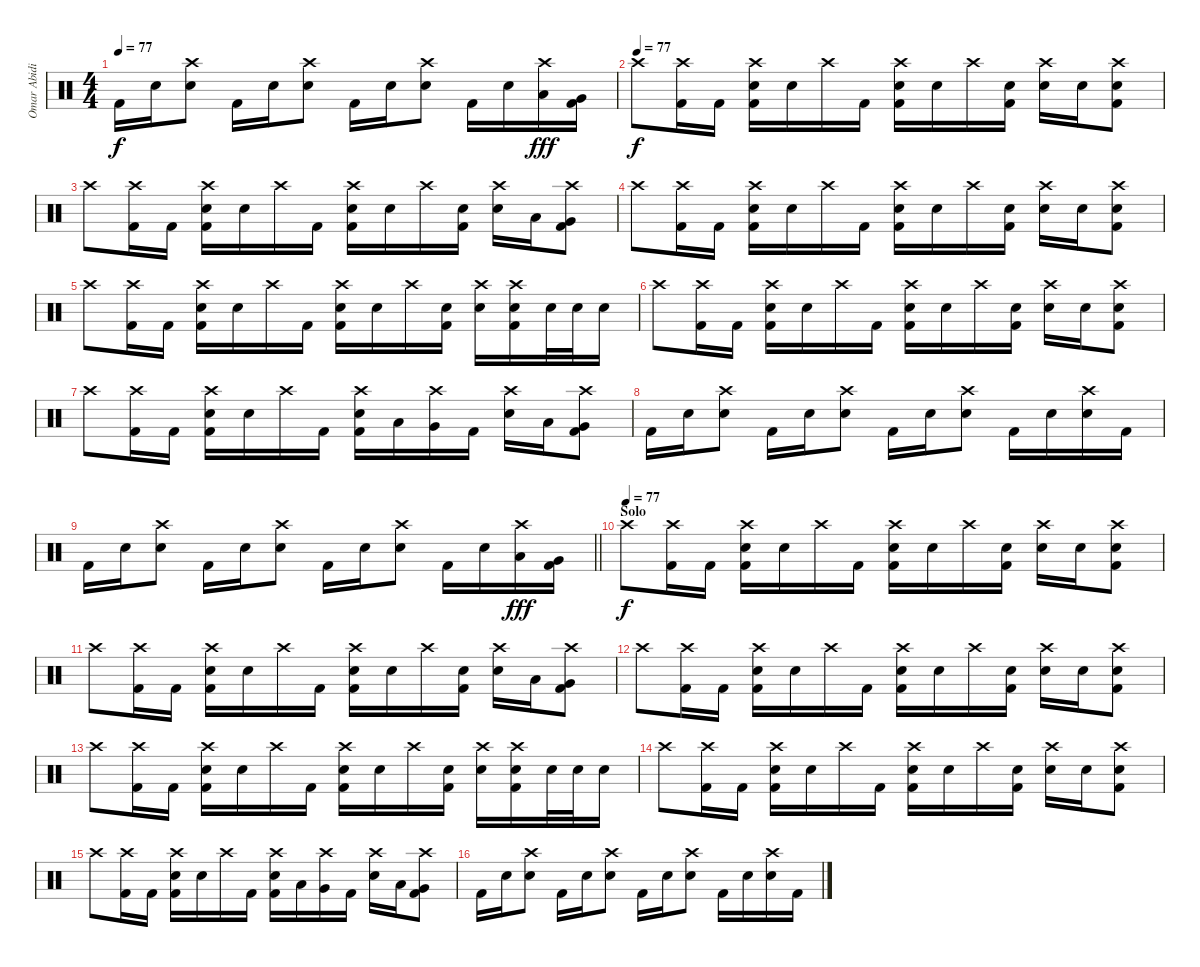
\track ("Omar Abidi" "Omar Abidi") {instrument percussion}
\staff {score}
\articulation defaults
\ts (4 4)
\tempo 77
\clef neutral
\ks c "Kick (hit) 2".16{dy f} "Electric Snare (hit)".16
("Crash high (hit)" "Electric Snare (hit)").8 "Kick (hit) 2".16 "Electric Snare (hit)".16 ("Crash high (hit)" "Electric Snare (hit)").8 "Kick (hit) 2".16 "Electric Snare (hit)".16 ("Crash high (hit)" "Electric Snare (hit)").8 "Kick (hit) 2".16 "Electric Snare (hit)".16 ("Crash high (hit)" "Low Tom (hit)").16{dy fff} ("Very Low Tom (hit)" "Kick (hit) 2").16 |
\tempo (77)
"Crash high (hit)".8{dy f volume 14} ("Crash high (hit)" "Kick (hit) 2").16 "Kick (hit) 2".16 ("Crash high (hit)" "Electric Snare (hit)" "Kick (hit) 2").16 "Electric Snare (hit)".16 "Crash high (hit)".16 "Kick (hit) 2".16 ("Crash high (hit)" "Electric Snare (hit)" "Kick (hit) 2").16 "Electric Snare (hit)".16 "Crash high (hit)".16 ("Electric Snare (hit)" "Kick (hit) 2").16 ("Crash high (hit)" "Electric Snare (hit)").16 "Electric Snare (hit)".16 ("Crash high (hit)" "Electric Snare (hit)" "Kick (hit) 2").8 |
"Crash high (hit)".8{volume 14} ("Crash high (hit)" "Kick (hit) 2").16 "Kick (hit) 2".16 ("Crash high (hit)" "Electric Snare (hit)" "Kick (hit) 2").16 "Electric Snare (hit)".16 "Crash high (hit)".16 "Kick (hit) 2".16 ("Crash high (hit)" "Electric Snare (hit)" "Kick (hit) 2").16 "Electric Snare (hit)".16 "Crash high (hit)".16 ("Electric Snare (hit)" "Kick (hit) 2").16 ("Crash high (hit)" "Electric Snare (hit)").16 "Low Tom (hit)".16 ("Crash high (hit)" "Very Low Tom (hit)" "Kick (hit) 2").8 |
"Crash high (hit)".8{volume 14} ("Crash high (hit)" "Kick (hit) 2").16 "Kick (hit) 2".16 ("Crash high (hit)" "Electric Snare (hit)" "Kick (hit) 2").16 "Electric Snare (hit)".16 "Crash high (hit)".16 "Kick (hit) 2".16 ("Crash high (hit)" "Electric Snare (hit)" "Kick (hit) 2").16 "Electric Snare (hit)".16 "Crash high (hit)".16 ("Electric Snare (hit)" "Kick (hit) 2").16 ("Crash high (hit)" "Electric Snare (hit)").16 "Electric Snare (hit)".16 ("Crash high (hit)" "Electric Snare (hit)" "Kick (hit) 2").8 |
"Crash high (hit)".8{volume 14} ("Crash high (hit)" "Kick (hit) 2").16 "Kick (hit) 2".16 ("Crash high (hit)" "Electric Snare (hit)" "Kick (hit) 2").16 "Electric Snare (hit)".16 "Crash high (hit)".16 "Kick (hit) 2".16 ("Crash high (hit)" "Electric Snare (hit)" "Kick (hit) 2").16 "Electric Snare (hit)".16 "Crash high (hit)".16 ("Electric Snare (hit)" "Kick (hit) 2").16 ("Crash high (hit)" "Electric Snare (hit)").16 ("Crash high (hit)" "Electric Snare (hit)" "Kick (hit) 2").16 "Electric Snare (hit)".32 "Electric Snare (hit)".32 "Electric Snare (hit)".16 |
"Crash high (hit)".8{volume 14} ("Crash high (hit)" "Kick (hit) 2").16 "Kick (hit) 2".16 ("Crash high (hit)" "Electric Snare (hit)" "Kick (hit) 2").16 "Electric Snare (hit)".16 "Crash high (hit)".16 "Kick (hit) 2".16 ("Crash high (hit)" "Electric Snare (hit)" "Kick (hit) 2").16 "Electric Snare (hit)".16 "Crash high (hit)".16 ("Electric Snare (hit)" "Kick (hit) 2").16 ("Crash high (hit)" "Electric Snare (hit)").16 "Electric Snare (hit)".16 ("Crash high (hit)" "Electric Snare (hit)" "Kick (hit) 2").8 |
"Crash high (hit)".8{volume 14} ("Crash high (hit)" "Kick (hit) 2").16 "Kick (hit) 2".16 ("Crash high (hit)" "Electric Snare (hit)" "Kick (hit) 2").16 "Electric Snare (hit)".16 "Crash high (hit)".16 "Kick (hit) 2".16 ("Crash high (hit)" "Electric Snare (hit)" "Kick (hit) 2").16 "Low Tom (hit)".16 ("Crash high (hit)" "Very Low Tom (hit)").16 "Kick (hit) 2".16 ("Crash high (hit)" "Electric Snare (hit)").16 "Low Tom (hit)".16 ("Crash high (hit)" "Very Low Tom (hit)" "Kick (hit) 2").8 |
"Kick (hit) 2".16 "Electric Snare (hit)".16 ("Crash high (hit)" "Electric Snare (hit)").8 "Kick (hit) 2".16 "Electric Snare (hit)".16 ("Crash high (hit)" "Electric Snare (hit)").8 "Kick (hit) 2".16 "Electric Snare (hit)".16 ("Crash high (hit)" "Electric Snare (hit)").8 "Kick (hit) 2".16 "Electric Snare (hit)".16 ("Crash high (hit)" "Electric Snare (hit)").16 "Kick (hit) 2".16 |
\barLineRight lightlight "Kick (hit) 2".16 "Electric Snare (hit)".16
("Crash high (hit)" "Electric Snare (hit)").8 "Kick (hit) 2".16 "Electric Snare (hit)".16 ("Crash high (hit)" "Electric Snare (hit)").8 "Kick (hit) 2".16 "Electric Snare (hit)".16 ("Crash high (hit)" "Electric Snare (hit)").8 "Kick (hit) 2".16 "Electric Snare (hit)".16 ("Crash high (hit)" "Low Tom (hit)").16{dy fff} ("Very Low Tom (hit)" "Kick (hit) 2").16 |
\section ("" "Solo")
\tempo (77)
"Crash high (hit)".8{dy f volume 14} ("Crash high (hit)" "Kick (hit) 2").16 "Kick (hit) 2".16 ("Crash high (hit)" "Electric Snare (hit)" "Kick (hit) 2").16 "Electric Snare (hit)".16 "Crash high (hit)".16 "Kick (hit) 2".16 ("Crash high (hit)" "Electric Snare (hit)" "Kick (hit) 2").16 "Electric Snare (hit)".16 "Crash high (hit)".16 ("Electric Snare (hit)" "Kick (hit) 2").16 ("Crash high (hit)" "Electric Snare (hit)").16 "Electric Snare (hit)".16 ("Crash high (hit)" "Electric Snare (hit)" "Kick (hit) 2").8 |
"Crash high (hit)".8{volume 14} ("Crash high (hit)" "Kick (hit) 2").16 "Kick (hit) 2".16 ("Crash high (hit)" "Electric Snare (hit)" "Kick (hit) 2").16 "Electric Snare (hit)".16 "Crash high (hit)".16 "Kick (hit) 2".16 ("Crash high (hit)" "Electric Snare (hit)" "Kick (hit) 2").16 "Electric Snare (hit)".16 "Crash high (hit)".16 ("Electric Snare (hit)" "Kick (hit) 2").16 ("Crash high (hit)" "Electric Snare (hit)").16 "Low Tom (hit)".16 ("Crash high (hit)" "Very Low Tom (hit)" "Kick (hit) 2").8 |
"Crash high (hit)".8{volume 14} ("Crash high (hit)" "Kick (hit) 2").16 "Kick (hit) 2".16 ("Crash high (hit)" "Electric Snare (hit)" "Kick (hit) 2").16 "Electric Snare (hit)".16 "Crash high (hit)".16 "Kick (hit) 2".16 ("Crash high (hit)" "Electric Snare (hit)" "Kick (hit) 2").16 "Electric Snare (hit)".16 "Crash high (hit)".16 ("Electric Snare (hit)" "Kick (hit) 2").16 ("Crash high (hit)" "Electric Snare (hit)").16 "Electric Snare (hit)".16 ("Crash high (hit)" "Electric Snare (hit)" "Kick (hit) 2").8 |
"Crash high (hit)".8{volume 14} ("Crash high (hit)" "Kick (hit) 2").16 "Kick (hit) 2".16 ("Crash high (hit)" "Electric Snare (hit)" "Kick (hit) 2").16 "Electric Snare (hit)".16 "Crash high (hit)".16 "Kick (hit) 2".16 ("Crash high (hit)" "Electric Snare (hit)" "Kick (hit) 2").16 "Electric Snare (hit)".16 "Crash high (hit)".16 ("Electric Snare (hit)" "Kick (hit) 2").16 ("Crash high (hit)" "Electric Snare (hit)").16 ("Crash high (hit)" "Electric Snare (hit)" "Kick (hit) 2").16 "Electric Snare (hit)".32 "Electric Snare (hit)".32 "Electric Snare (hit)".16 |
"Crash high (hit)".8{volume 14} ("Crash high (hit)" "Kick (hit) 2").16 "Kick (hit) 2".16 ("Crash high (hit)" "Electric Snare (hit)" "Kick (hit) 2").16 "Electric Snare (hit)".16 "Crash high (hit)".16 "Kick (hit) 2".16 ("Crash high (hit)" "Electric Snare (hit)" "Kick (hit) 2").16 "Electric Snare (hit)".16 "Crash high (hit)".16 ("Electric Snare (hit)" "Kick (hit) 2").16 ("Crash high (hit)" "Electric Snare (hit)").16 "Electric Snare (hit)".16 ("Crash high (hit)" "Electric Snare (hit)" "Kick (hit) 2").8 |
"Crash high (hit)".8{volume 14} ("Crash high (hit)" "Kick (hit) 2").16 "Kick (hit) 2".16 ("Crash high (hit)" "Electric Snare (hit)" "Kick (hit) 2").16 "Electric Snare (hit)".16 "Crash high (hit)".16 "Kick (hit) 2".16 ("Crash high (hit)" "Electric Snare (hit)" "Kick (hit) 2").16 "Low Tom (hit)".16 ("Crash high (hit)" "Very Low Tom (hit)").16 "Kick (hit) 2".16 ("Crash high (hit)" "Electric Snare (hit)").16 "Low Tom (hit)".16 ("Crash high (hit)" "Very Low Tom (hit)" "Kick (hit) 2").8 |
"Kick (hit) 2".16 "Electric Snare (hit)".16 ("Crash high (hit)" "Electric Snare (hit)").8 "Kick (hit) 2".16 "Electric Snare (hit)".16 ("Crash high (hit)" "Electric Snare (hit)").8 "Kick (hit) 2".16 "Electric Snare (hit)".16 ("Crash high (hit)" "Electric Snare (hit)").8 "Kick (hit) 2".16 "Electric Snare (hit)".16 ("Crash high (hit)" "Electric Snare (hit)").16 "Kick (hit) 2".16
